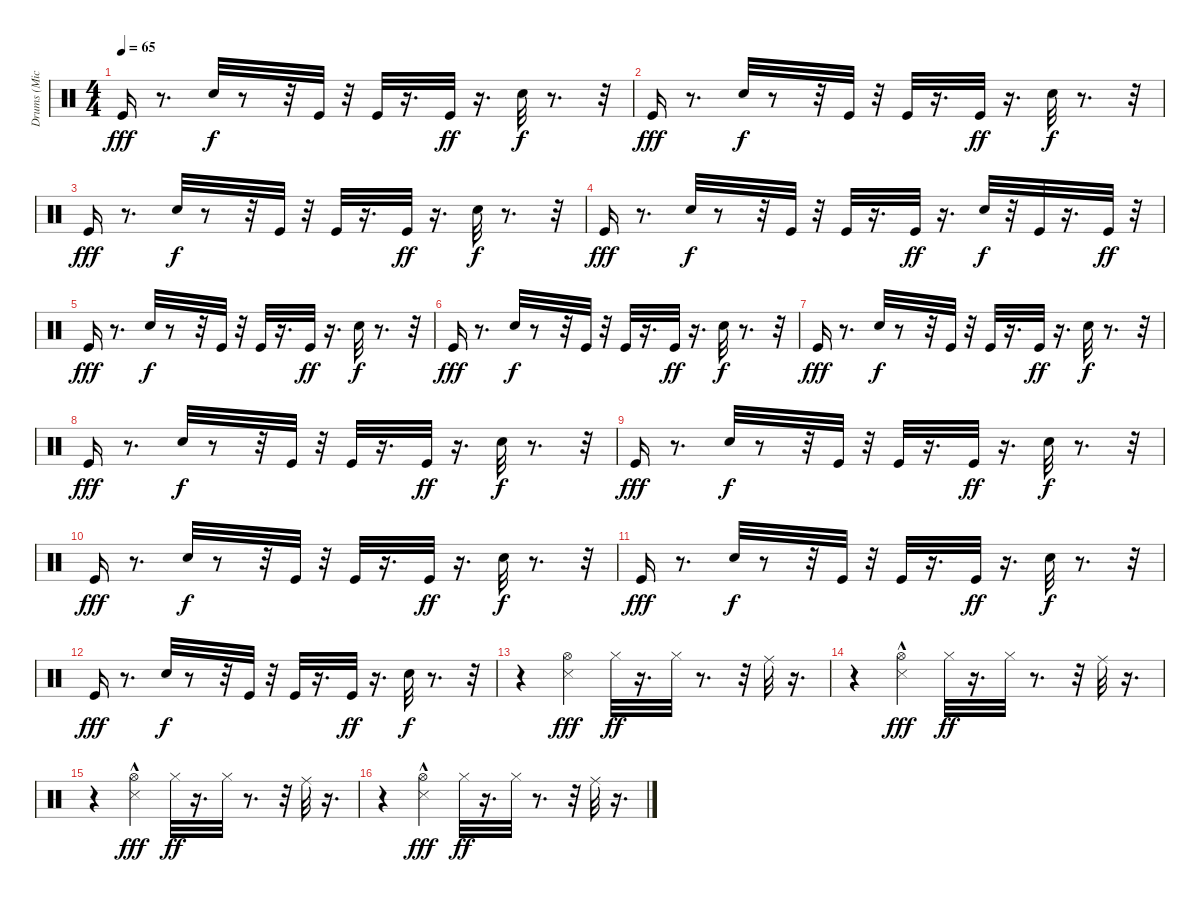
\track ("Drums (Michael Giles)" "Drums (Mic") {instrument percussion}
\staff {score}
\articulation defaults
\ts (4 4)
\tempo 65
\clef neutral
\ks c "Kick (hit)".16{dy fff}
r.8{d} "Snare (hit) 2".32{dy f} r.8 r.32 "Kick (hit)".32 r.32 "Kick (hit)".32 r.16{d} "Kick (hit)".32{dy ff} r.16{d} "Snare (hit) 2".32{dy f} r.8{d} r.32 |
"Kick (hit)".16{dy fff} r.8{d} "Snare (hit) 2".32{dy f} r.8 r.32 "Kick (hit)".32 r.32 "Kick (hit)".32 r.16{d} "Kick (hit)".32{dy ff} r.16{d} "Snare (hit) 2".32{dy f} r.8{d} r.32 |
"Kick (hit)".16{dy fff} r.8{d} "Snare (hit) 2".32{dy f} r.8 r.32 "Kick (hit)".32 r.32 "Kick (hit)".32 r.16{d} "Kick (hit)".32{dy ff} r.16{d} "Snare (hit) 2".32{dy f} r.8{d} r.32 |
"Kick (hit)".16{dy fff} r.8{d} "Snare (hit) 2".32{dy f} r.8 r.32 "Kick (hit)".32 r.32 "Kick (hit)".32 r.16{d} "Kick (hit)".32{dy ff} r.16{d} "Snare (hit) 2".32{dy f} r.32 "Kick (hit)".32 r.16{d} "Kick (hit)".32{dy ff} r.32 |
"Kick (hit)".16{dy fff} r.8{d} "Snare (hit) 2".32{dy f} r.8 r.32 "Kick (hit)".32 r.32 "Kick (hit)".32 r.16{d} "Kick (hit)".32{dy ff} r.16{d} "Snare (hit) 2".32{dy f} r.8{d} r.32 |
"Kick (hit)".16{dy fff} r.8{d} "Snare (hit) 2".32{dy f} r.8 r.32 "Kick (hit)".32 r.32 "Kick (hit)".32 r.16{d} "Kick (hit)".32{dy ff} r.16{d} "Snare (hit) 2".32{dy f} r.8{d} r.32 |
"Kick (hit)".16{dy fff} r.8{d} "Snare (hit) 2".32{dy f} r.8 r.32 "Kick (hit)".32 r.32 "Kick (hit)".32 r.16{d} "Kick (hit)".32{dy ff} r.16{d} "Snare (hit) 2".32{dy f} r.8{d} r.32 |
"Kick (hit)".16{dy fff} r.8{d} "Snare (hit) 2".32{dy f} r.8 r.32 "Kick (hit)".32 r.32 "Kick (hit)".32 r.16{d} "Kick (hit)".32{dy ff} r.16{d} "Snare (hit) 2".32{dy f} r.8{d} r.32 |
"Kick (hit)".16{dy fff} r.8{d} "Snare (hit) 2".32{dy f} r.8 r.32 "Kick (hit)".32 r.32 "Kick (hit)".32 r.16{d} "Kick (hit)".32{dy ff} r.16{d} "Snare (hit) 2".32{dy f} r.8{d} r.32 |
"Kick (hit)".16{dy fff} r.8{d} "Snare (hit) 2".32{dy f} r.8 r.32 "Kick (hit)".32 r.32 "Kick (hit)".32 r.16{d} "Kick (hit)".32{dy ff} r.16{d} "Snare (hit) 2".32{dy f} r.8{d} r.32 |
"Kick (hit)".16{dy fff} r.8{d} "Snare (hit) 2".32{dy f} r.8 r.32 "Kick (hit)".32 r.32 "Kick (hit)".32 r.16{d} "Kick (hit)".32{dy ff} r.16{d} "Snare (hit) 2".32{dy f} r.8{d} r.32 |
"Kick (hit)".16{dy fff} r.8{d} "Snare (hit) 2".32{dy f} r.8 r.32 "Kick (hit)".32 r.32 "Kick (hit)".32 r.16{d} "Kick (hit)".32{dy ff} r.16{d} "Snare (hit) 2".32{dy f} r.8{d} r.32 |
r.4 ("Hi-Hat (open)" "Metronome (hit)").4{dy fff} "Hi-Hat (closed)".32{dy ff} r.16{d} "Hi-Hat (closed)".32 r.8{d} r.32 "Ride (middle)".32 r.16{d} |
r.4 ("Metronome (hit)"{hac} "Hi-Hat (open)").4{dy fff} "Hi-Hat (closed)".32{dy ff} r.16{d} "Hi-Hat (closed)".32 r.8{d} r.32 "Ride (middle)".32 r.16{d} |
r.4 ("Metronome (hit)"{hac} "Hi-Hat (open)").4{dy fff} "Hi-Hat (closed)".32{dy ff} r.16{d} "Hi-Hat (closed)".32 r.8{d} r.32 "Ride (middle)".32 r.16{d} |
r.4 ("Metronome (hit)"{hac} "Hi-Hat (open)").4{dy fff} "Hi-Hat (closed)".32{dy ff} r.16{d} "Hi-Hat (closed)".32 r.8{d} r.32 "Ride (middle)".32 r.16{d}
